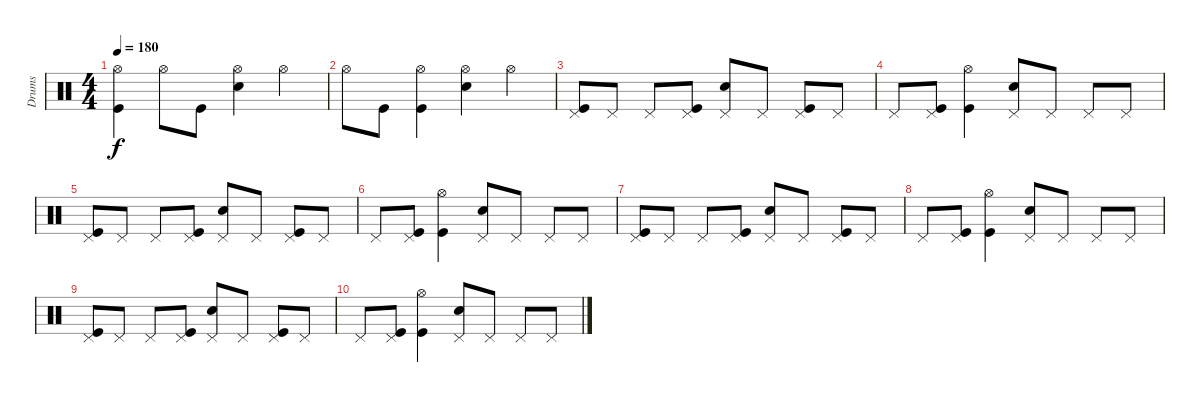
\track ("Drums" "Drums") {instrument percussion}
\staff {score}
\articulation defaults
\ts (4 4)
\tempo 180
\clef neutral
\ks c
("Hi-Hat (open)" "Kick (hit)").4{dy f} "Hi-Hat (open)".8 "Kick (hit)".8 ("Hi-Hat (open)" "Electric Snare (hit)").4 "Hi-Hat (open)".4 |
"Hi-Hat (open)".8 "Kick (hit)".8 ("Hi-Hat (open)" "Kick (hit)").4 ("Hi-Hat (open)" "Electric Snare (hit)").4 "Hi-Hat (open)".4 |
("Pedal Hi-Hat (hit)" "Kick (hit)").8 "Pedal Hi-Hat (hit)".8 "Pedal Hi-Hat (hit)".8 ("Pedal Hi-Hat (hit)" "Kick (hit)").8 ("Pedal Hi-Hat (hit)" "Electric Snare (hit)").8 "Pedal Hi-Hat (hit)".8 ("Pedal Hi-Hat (hit)" "Kick (hit)").8 "Pedal Hi-Hat (hit)".8 |
"Pedal Hi-Hat (hit)".8 ("Pedal Hi-Hat (hit)" "Kick (hit)").8 ("Hi-Hat (open)" "Kick (hit)").4 ("Pedal Hi-Hat (hit)" "Electric Snare (hit)").8 "Pedal Hi-Hat (hit)".8 "Pedal Hi-Hat (hit)".8 "Pedal Hi-Hat (hit)".8 |
("Pedal Hi-Hat (hit)" "Kick (hit)").8 "Pedal Hi-Hat (hit)".8 "Pedal Hi-Hat (hit)".8 ("Pedal Hi-Hat (hit)" "Kick (hit)").8 ("Pedal Hi-Hat (hit)" "Electric Snare (hit)").8 "Pedal Hi-Hat (hit)".8 ("Pedal Hi-Hat (hit)" "Kick (hit)").8 "Pedal Hi-Hat (hit)".8 |
"Pedal Hi-Hat (hit)".8 ("Pedal Hi-Hat (hit)" "Kick (hit)").8 ("Hi-Hat (open)" "Kick (hit)").4 ("Pedal Hi-Hat (hit)" "Electric Snare (hit)").8 "Pedal Hi-Hat (hit)".8 "Pedal Hi-Hat (hit)".8 "Pedal Hi-Hat (hit)".8 |
("Pedal Hi-Hat (hit)" "Kick (hit)").8 "Pedal Hi-Hat (hit)".8 "Pedal Hi-Hat (hit)".8 ("Pedal Hi-Hat (hit)" "Kick (hit)").8 ("Pedal Hi-Hat (hit)" "Electric Snare (hit)").8 "Pedal Hi-Hat (hit)".8 ("Pedal Hi-Hat (hit)" "Kick (hit)").8 "Pedal Hi-Hat (hit)".8 |
"Pedal Hi-Hat (hit)".8 ("Pedal Hi-Hat (hit)" "Kick (hit)").8 ("Hi-Hat (open)" "Kick (hit)").4 ("Pedal Hi-Hat (hit)" "Electric Snare (hit)").8 "Pedal Hi-Hat (hit)".8 "Pedal Hi-Hat (hit)".8 "Pedal Hi-Hat (hit)".8 |
("Pedal Hi-Hat (hit)" "Kick (hit)").8 "Pedal Hi-Hat (hit)".8 "Pedal Hi-Hat (hit)".8 ("Pedal Hi-Hat (hit)" "Kick (hit)").8 ("Pedal Hi-Hat (hit)" "Electric Snare (hit)").8 "Pedal Hi-Hat (hit)".8 ("Pedal Hi-Hat (hit)" "Kick (hit)").8 "Pedal Hi-Hat (hit)".8 |
"Pedal Hi-Hat (hit)".8 ("Pedal Hi-Hat (hit)" "Kick (hit)").8 ("Hi-Hat (open)" "Kick (hit)").4 ("Pedal Hi-Hat (hit)" "Electric Snare (hit)").8 "Pedal Hi-Hat (hit)".8 "Pedal Hi-Hat (hit)".8 "Pedal Hi-Hat (hit)".8
